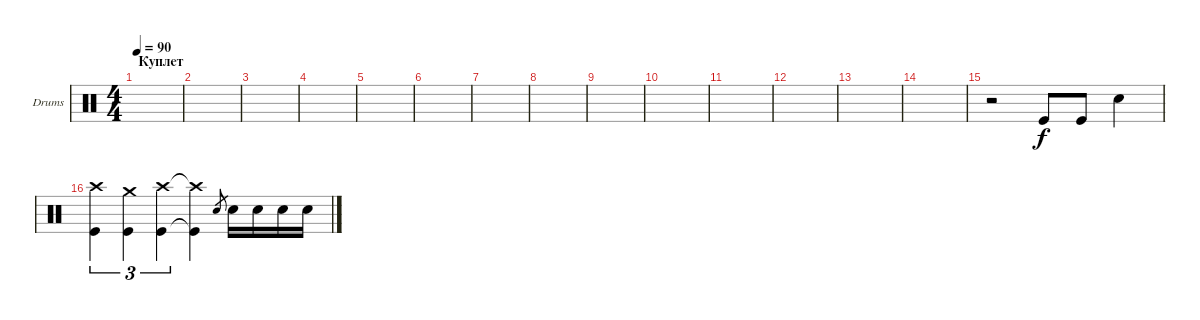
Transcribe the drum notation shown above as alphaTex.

\bracketExtendMode groupsimilarinstruments
\firstSystemTrackNameOrientation horizontal
\otherSystemsTrackNameOrientation horizontal
\track ("Drumkit" "Drums") {instrument percussion}
\staff {score}
\articulation defaults
\ts (4 4)
\section ("" "Куплет")
\tempo 90
\clef neutral
\ks c
|
|
|
|
|
|
|
|
|
|
|
|
|
|
r.2 "Kick (hit)".8 "Kick (hit)".8 "Snare (hit) 2".4 |
("Kick (hit)" "Crash high (hit)").4{tu (3 2)} ("Kick (hit)" "Crash medium (hit)").4{tu (3 2)} ("Kick (hit)" "Crash high (hit)").4{tu (3 2)} ("Kick (hit)"{t} "Crash high (hit)"{t}).4 "Snare (hit) 2".8{gr} "Snare (hit) 2".16 "Snare (hit) 2".16 "Snare (hit) 2".16 "Snare (hit) 2".16
